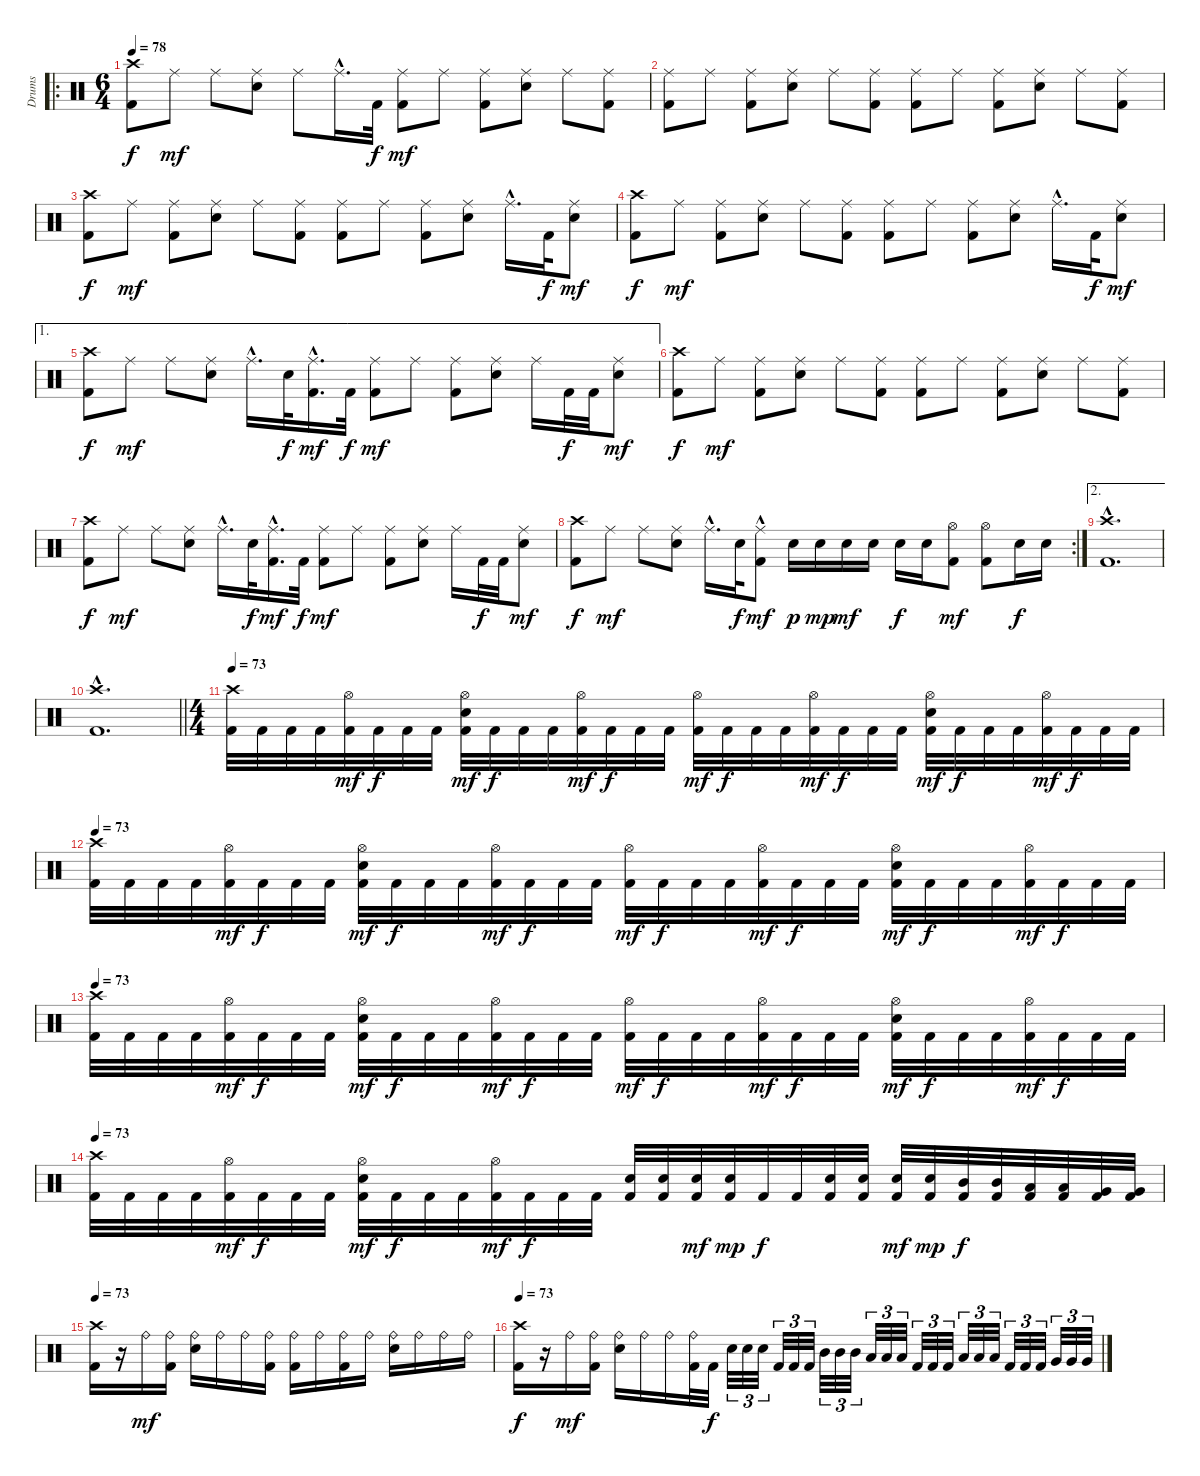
\track ("Drums" "Drums") {instrument percussion}
\staff {score}
\articulation defaults
\ro
\ts (6 4)
\tempo 78
\clef neutral
\ks c
("Crash high (hit)" "Kick (hit) 2").8{dy f} "Ride (middle)".8{dy mf} "Ride (middle)".8 ("Ride (middle)" "Electric Snare (hit)").8 "Ride (middle)".8 "Ride (middle)"{hac}.16{d} "Kick (hit) 2".32{dy f} ("Ride (middle)" "Kick (hit) 2").8{dy mf} "Ride (middle)".8 ("Ride (middle)" "Kick (hit) 2").8 ("Ride (middle)" "Electric Snare (hit)").8 "Ride (middle)".8 ("Ride (middle)" "Kick (hit) 2").8 |
("Ride (middle)" "Kick (hit) 2").8 "Ride (middle)".8 ("Ride (middle)" "Kick (hit) 2").8 ("Ride (middle)" "Electric Snare (hit)").8 "Ride (middle)".8 ("Ride (middle)" "Kick (hit) 2").8 ("Ride (middle)" "Kick (hit) 2").8 "Ride (middle)".8 ("Ride (middle)" "Kick (hit) 2").8 ("Ride (middle)" "Electric Snare (hit)").8 "Ride (middle)".8 ("Ride (middle)" "Kick (hit) 2").8 |
("Crash high (hit)" "Kick (hit) 2").8{dy f} "Ride (middle)".8{dy mf} ("Ride (middle)" "Kick (hit) 2").8 ("Ride (middle)" "Electric Snare (hit)").8 "Ride (middle)".8 ("Ride (middle)" "Kick (hit) 2").8 ("Ride (middle)" "Kick (hit) 2").8 "Ride (middle)".8 ("Ride (middle)" "Kick (hit) 2").8 ("Ride (middle)" "Electric Snare (hit)").8 "Ride (middle)"{hac}.16{d} "Kick (hit) 2".32{dy f} ("Ride (middle)" "Electric Snare (hit)").8{dy mf} |
("Crash high (hit)" "Kick (hit) 2").8{dy f} "Ride (middle)".8{dy mf} ("Ride (middle)" "Kick (hit) 2").8 ("Ride (middle)" "Electric Snare (hit)").8 "Ride (middle)".8 ("Ride (middle)" "Kick (hit) 2").8 ("Ride (middle)" "Kick (hit) 2").8 "Ride (middle)".8 ("Ride (middle)" "Kick (hit) 2").8 ("Ride (middle)" "Electric Snare (hit)").8 "Ride (middle)"{hac}.16{d} "Kick (hit) 2".32{dy f} ("Ride (middle)" "Electric Snare (hit)").8{dy mf} |
\ae 1
("Crash high (hit)" "Kick (hit) 2").8{dy f} "Ride (middle)".8{dy mf} "Ride (middle)".8 ("Ride (middle)" "Electric Snare (hit)").8 "Ride (middle)"{hac}.16{d} "Electric Snare (hit)".32{dy f} ("Ride (middle)"{hac} "Kick (hit) 2"{hac}).16{d dy mf} "Kick (hit) 2".32{dy f} ("Ride (middle)" "Kick (hit) 2").8{dy mf} "Ride (middle)".8 ("Ride (middle)" "Kick (hit) 2").8 ("Ride (middle)" "Electric Snare (hit)").8 "Ride (middle)".16 "Kick (hit) 2".32{dy f} "Kick (hit) 2".32 ("Ride (middle)" "Electric Snare (hit)").8{dy mf} |
("Crash high (hit)" "Kick (hit) 2").8{dy f} "Ride (middle)".8{dy mf} ("Ride (middle)" "Kick (hit) 2").8 ("Ride (middle)" "Electric Snare (hit)").8 "Ride (middle)".8 ("Ride (middle)" "Kick (hit) 2").8 ("Ride (middle)" "Kick (hit) 2").8 "Ride (middle)".8 ("Ride (middle)" "Kick (hit) 2").8 ("Ride (middle)" "Electric Snare (hit)").8 "Ride (middle)".8 ("Ride (middle)" "Kick (hit) 2").8 |
("Crash high (hit)" "Kick (hit) 2").8{dy f} "Ride (middle)".8{dy mf} "Ride (middle)".8 ("Ride (middle)" "Electric Snare (hit)").8 "Ride (middle)"{hac}.16{d} "Electric Snare (hit)".32{dy f} ("Ride (middle)"{hac} "Kick (hit) 2"{hac}).16{d dy mf} "Kick (hit) 2".32{dy f} ("Ride (middle)" "Kick (hit) 2").8{dy mf} "Ride (middle)".8 ("Ride (middle)" "Kick (hit) 2").8 ("Ride (middle)" "Electric Snare (hit)").8 "Ride (middle)".16 "Kick (hit) 2".32{dy f} "Kick (hit) 2".32 ("Ride (middle)" "Electric Snare (hit)").8{dy mf} |
\rc 2
("Crash high (hit)" "Kick (hit) 2").8{dy f} "Ride (middle)".8{dy mf} "Ride (middle)".8 ("Ride (middle)" "Electric Snare (hit)").8 "Ride (middle)"{hac}.16{d} "Electric Snare (hit)".32{dy f} ("Ride (middle)" "Kick (hit) 2"{hac}).8{dy mf} "Electric Snare (hit)".16{dy p} "Electric Snare (hit)".16{dy mp} "Electric Snare (hit)".16{dy mf} "Electric Snare (hit)".16 "Electric Snare (hit)".16{dy f} "Electric Snare (hit)".16 ("Hi-Hat (open)" "Kick (hit) 2").8{dy mf} ("Hi-Hat (open)" "Kick (hit) 2").8 "Electric Snare (hit)".16{dy f} "Electric Snare (hit)".16 |
\ae 2
("Crash high (hit)"{hac} "Kick (hit) 2"{hac}).1{d} |
\barLineRight lightlight
("Crash high (hit)"{hac} "Kick (hit) 2"{hac}).1{d} |
\ts (4 4)
\tempo 73
("Crash high (hit)" "Kick (hit) 2").32 "Kick (hit) 2".32 "Kick (hit) 2".32 "Kick (hit) 2".32 ("Hi-Hat (open)" "Kick (hit) 2").32{dy mf} "Kick (hit) 2".32{dy f} "Kick (hit) 2".32 "Kick (hit) 2".32 ("Hi-Hat (open)" "Electric Snare (hit)" "Kick (hit) 2").32{dy mf} "Kick (hit) 2".32{dy f} "Kick (hit) 2".32 "Kick (hit) 2".32 ("Hi-Hat (open)" "Kick (hit) 2").32{dy mf} "Kick (hit) 2".32{dy f} "Kick (hit) 2".32 "Kick (hit) 2".32 ("Hi-Hat (open)" "Kick (hit) 2").32{dy mf} "Kick (hit) 2".32{dy f} "Kick (hit) 2".32 "Kick (hit) 2".32 ("Hi-Hat (open)" "Kick (hit) 2").32{dy mf} "Kick (hit) 2".32{dy f} "Kick (hit) 2".32 "Kick (hit) 2".32 ("Hi-Hat (open)" "Electric Snare (hit)" "Kick (hit) 2").32{dy mf} "Kick (hit) 2".32{dy f} "Kick (hit) 2".32 "Kick (hit) 2".32 ("Hi-Hat (open)" "Kick (hit) 2").32{dy mf} "Kick (hit) 2".32{dy f} "Kick (hit) 2".32 "Kick (hit) 2".32 |
\tempo 73
("Crash high (hit)" "Kick (hit) 2").32 "Kick (hit) 2".32 "Kick (hit) 2".32 "Kick (hit) 2".32 ("Hi-Hat (open)" "Kick (hit) 2").32{dy mf} "Kick (hit) 2".32{dy f} "Kick (hit) 2".32 "Kick (hit) 2".32 ("Hi-Hat (open)" "Electric Snare (hit)" "Kick (hit) 2").32{dy mf} "Kick (hit) 2".32{dy f} "Kick (hit) 2".32 "Kick (hit) 2".32 ("Hi-Hat (open)" "Kick (hit) 2").32{dy mf} "Kick (hit) 2".32{dy f} "Kick (hit) 2".32 "Kick (hit) 2".32 ("Hi-Hat (open)" "Kick (hit) 2").32{dy mf} "Kick (hit) 2".32{dy f} "Kick (hit) 2".32 "Kick (hit) 2".32 ("Hi-Hat (open)" "Kick (hit) 2").32{dy mf} "Kick (hit) 2".32{dy f} "Kick (hit) 2".32 "Kick (hit) 2".32 ("Hi-Hat (open)" "Electric Snare (hit)" "Kick (hit) 2").32{dy mf} "Kick (hit) 2".32{dy f} "Kick (hit) 2".32 "Kick (hit) 2".32 ("Hi-Hat (open)" "Kick (hit) 2").32{dy mf} "Kick (hit) 2".32{dy f} "Kick (hit) 2".32 "Kick (hit) 2".32 |
\tempo 73
("Crash high (hit)" "Kick (hit) 2").32 "Kick (hit) 2".32 "Kick (hit) 2".32 "Kick (hit) 2".32 ("Hi-Hat (open)" "Kick (hit) 2").32{dy mf} "Kick (hit) 2".32{dy f} "Kick (hit) 2".32 "Kick (hit) 2".32 ("Hi-Hat (open)" "Electric Snare (hit)" "Kick (hit) 2").32{dy mf} "Kick (hit) 2".32{dy f} "Kick (hit) 2".32 "Kick (hit) 2".32 ("Hi-Hat (open)" "Kick (hit) 2").32{dy mf} "Kick (hit) 2".32{dy f} "Kick (hit) 2".32 "Kick (hit) 2".32 ("Hi-Hat (open)" "Kick (hit) 2").32{dy mf} "Kick (hit) 2".32{dy f} "Kick (hit) 2".32 "Kick (hit) 2".32 ("Hi-Hat (open)" "Kick (hit) 2").32{dy mf} "Kick (hit) 2".32{dy f} "Kick (hit) 2".32 "Kick (hit) 2".32 ("Hi-Hat (open)" "Electric Snare (hit)" "Kick (hit) 2").32{dy mf} "Kick (hit) 2".32{dy f} "Kick (hit) 2".32 "Kick (hit) 2".32 ("Hi-Hat (open)" "Kick (hit) 2").32{dy mf} "Kick (hit) 2".32{dy f} "Kick (hit) 2".32 "Kick (hit) 2".32 |
\tempo 73
("Crash high (hit)" "Kick (hit) 2").32 "Kick (hit) 2".32 "Kick (hit) 2".32 "Kick (hit) 2".32 ("Hi-Hat (open)" "Kick (hit) 2").32{dy mf} "Kick (hit) 2".32{dy f} "Kick (hit) 2".32 "Kick (hit) 2".32 ("Hi-Hat (open)" "Electric Snare (hit)" "Kick (hit) 2").32{dy mf} "Kick (hit) 2".32{dy f} "Kick (hit) 2".32 "Kick (hit) 2".32 ("Hi-Hat (open)" "Kick (hit) 2").32{dy mf} "Kick (hit) 2".32{dy f} "Kick (hit) 2".32 "Kick (hit) 2".32 ("Electric Snare (hit)" "Kick (hit) 2").32 ("Electric Snare (hit)" "Kick (hit) 2").32 ("Electric Snare (hit)" "Kick (hit) 2").32{dy mf} ("Electric Snare (hit)" "Kick (hit) 2").32{dy mp} "Kick (hit) 2".32{dy f} "Kick (hit) 2".32 ("Electric Snare (hit)" "Kick (hit) 2").32 ("Electric Snare (hit)" "Kick (hit) 2").32 ("Electric Snare (hit)" "Kick (hit) 2").32{dy mf} ("Electric Snare (hit)" "Kick (hit) 2").32{dy mp} ("Mid Tom (hit)" "Kick (hit) 2").32{dy f} ("Mid Tom (hit)" "Kick (hit) 2").32 ("Low Tom (hit)" "Kick (hit) 2").32 ("Low Tom (hit)" "Kick (hit) 2").32 ("Very Low Tom (hit)" "Kick (hit) 2").32 ("Very Low Tom (hit)" "Kick (hit) 2").32 |
\tempo 73
("Crash high (hit)" "Kick (hit) 2").16 r.16 "Ride (bell)".16{dy mf} ("Ride (bell)" "Kick (hit) 2").16 ("Ride (bell)" "Electric Snare (hit)").16 "Ride (bell)".16 "Ride (bell)".16 ("Ride (bell)" "Kick (hit) 2").16 ("Ride (bell)" "Kick (hit) 2").16 "Ride (bell)".16 ("Ride (bell)" "Kick (hit) 2").16 "Ride (bell)".16 ("Ride (bell)" "Electric Snare (hit)").16 "Ride (bell)".16 "Ride (bell)".16 "Ride (bell)".16 |
\tempo 73
("Crash high (hit)" "Kick (hit) 2").16{dy f} r.16 "Ride (bell)".16{dy mf} ("Ride (bell)" "Kick (hit) 2").16 ("Ride (bell)" "Electric Snare (hit)").16 "Ride (bell)".16 "Ride (bell)".16 ("Ride (bell)" "Kick (hit) 2").32 "Kick (hit) 2".32{dy f} "Electric Snare (hit)".32{tu (3 2)} "Electric Snare (hit)".32{tu (3 2)} "Electric Snare (hit)".32{tu (3 2)} "Kick (hit) 2".32{tu (3 2)} "Kick (hit) 2".32{tu (3 2)} "Kick (hit) 2".32{tu (3 2)} "Mid Tom (hit)".32{tu (3 2)} "Mid Tom (hit)".32{tu (3 2)} "Mid Tom (hit)".32{tu (3 2)} "Low Tom (hit)".32{tu (3 2)} "Low Tom (hit)".32{tu (3 2)} "Low Tom (hit)".32{tu (3 2)} "Kick (hit) 2".32{tu (3 2)} "Kick (hit) 2".32{tu (3 2)} "Kick (hit) 2".32{tu (3 2)} "Low Tom (hit)".32{tu (3 2)} "Low Tom (hit)".32{tu (3 2)} "Low Tom (hit)".32{tu (3 2)} "Kick (hit) 2".32{tu (3 2)} "Kick (hit) 2".32{tu (3 2)} "Kick (hit) 2".32{tu (3 2)} "Very Low Tom (hit)".32{tu (3 2)} "Very Low Tom (hit)".32{tu (3 2)} "Very Low Tom (hit)".32{tu (3 2)}
